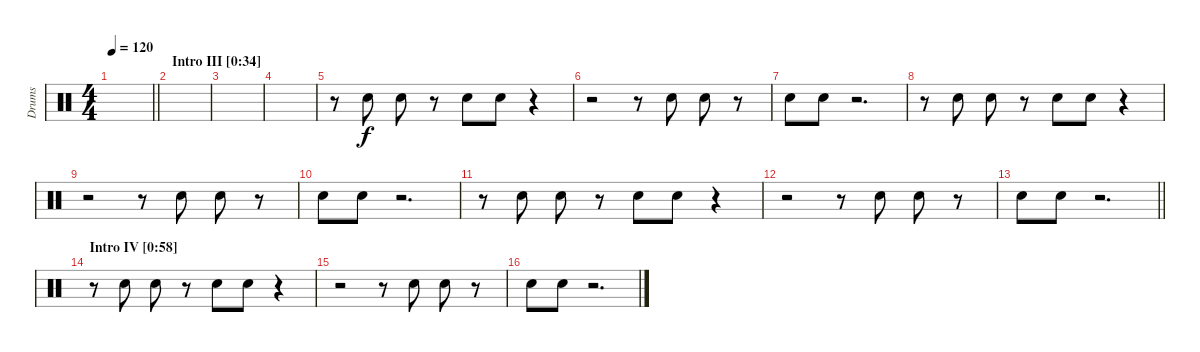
\track ("Drums" "Drums") {instrument percussion}
\staff {score}
\articulation defaults
\ts (4 4)
\tempo 120
\clef neutral
\barLineRight lightlight
\ks c
|
\section ("" "Intro III [0:34]")
|
|
|
r.8{volume 5} "Snare (hit) 2".8 "Snare (hit) 2".8 r.8 "Snare (hit) 2".8 "Snare (hit) 2".8 r.4 |
r.2 r.8 "Snare (hit) 2".8 "Snare (hit) 2".8 r.8 |
"Snare (hit) 2".8 "Snare (hit) 2".8 r.2{d} |
r.8 "Snare (hit) 2".8 "Snare (hit) 2".8 r.8 "Snare (hit) 2".8 "Snare (hit) 2".8 r.4 |
r.2 r.8 "Snare (hit) 2".8 "Snare (hit) 2".8 r.8 |
"Snare (hit) 2".8 "Snare (hit) 2".8 r.2{d} |
r.8 "Snare (hit) 2".8 "Snare (hit) 2".8 r.8 "Snare (hit) 2".8 "Snare (hit) 2".8 r.4 |
r.2 r.8 "Snare (hit) 2".8 "Snare (hit) 2".8 r.8 |
\barLineRight lightlight "Snare (hit) 2".8 "Snare (hit) 2".8
r.2{d} |
\section ("" "Intro IV [0:58]")
r.8 "Snare (hit) 2".8 "Snare (hit) 2".8 r.8 "Snare (hit) 2".8 "Snare (hit) 2".8 r.4 |
r.2 r.8 "Snare (hit) 2".8 "Snare (hit) 2".8 r.8 |
"Snare (hit) 2".8 "Snare (hit) 2".8 r.2{d}
